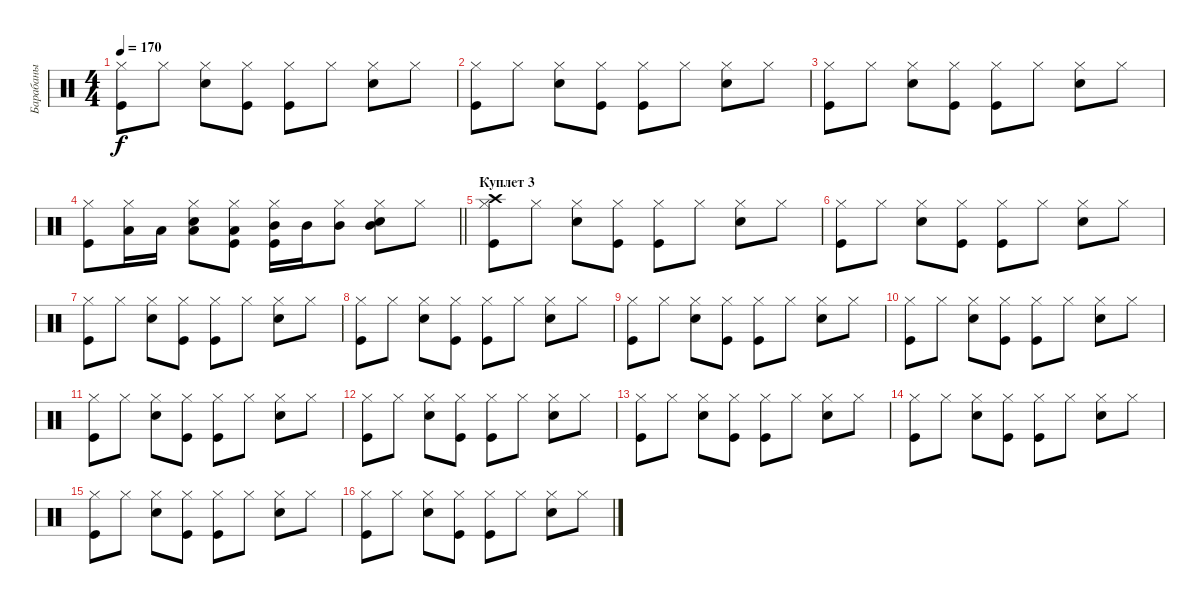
\track ("Барабаны" "Барабаны") {instrument percussion}
\staff {score}
\articulation defaults
\ts (4 4)
\tempo 170
\clef neutral
\ks c
("Kick (hit)" "Hi-Hat (closed)").8{dy f} "Hi-Hat (closed)".8 ("Snare (hit) 2" "Hi-Hat (closed)").8 ("Kick (hit)" "Hi-Hat (closed)").8 ("Kick (hit)" "Hi-Hat (closed)").8 "Hi-Hat (closed)".8 ("Snare (hit) 2" "Hi-Hat (closed)").8 "Hi-Hat (closed)".8 |
("Kick (hit)" "Hi-Hat (closed)").8 "Hi-Hat (closed)".8 ("Snare (hit) 2" "Hi-Hat (closed)").8 ("Kick (hit)" "Hi-Hat (closed)").8 ("Kick (hit)" "Hi-Hat (closed)").8 "Hi-Hat (closed)".8 ("Snare (hit) 2" "Hi-Hat (closed)").8 "Hi-Hat (closed)".8 |
("Kick (hit)" "Hi-Hat (closed)").8 "Hi-Hat (closed)".8 ("Snare (hit) 2" "Hi-Hat (closed)").8 ("Kick (hit)" "Hi-Hat (closed)").8 ("Kick (hit)" "Hi-Hat (closed)").8 "Hi-Hat (closed)".8 ("Snare (hit) 2" "Hi-Hat (closed)").8 "Hi-Hat (closed)".8 |
\barLineRight lightlight
("Kick (hit)" "Hi-Hat (closed)").8 ("Hi-Hat (closed)" "Low Floor Tom (hit)").16 "Low Floor Tom (hit)".16 ("Snare (hit) 2" "Hi-Hat (closed)" "Low Floor Tom (hit)").8 ("Kick (hit)" "Hi-Hat (closed)" "Low Tom (hit)").8 ("Kick (hit)" "Hi-Hat (closed)" "Mid Tom (hit)").16 "Mid Tom (hit)".16 ("Hi-Hat (closed)" "Mid Tom (hit)").8 ("Snare (hit) 2" "Hi-Hat (closed)" "Mid Tom (hit)").8 "Hi-Hat (closed)".8 |
\section ("" "Куплет 3")
("Kick (hit)" "Hi-Hat (closed)" "Crash high (hit)").8 "Hi-Hat (closed)".8 ("Snare (hit) 2" "Hi-Hat (closed)").8 ("Kick (hit)" "Hi-Hat (closed)").8 ("Kick (hit)" "Hi-Hat (closed)").8 "Hi-Hat (closed)".8 ("Snare (hit) 2" "Hi-Hat (closed)").8 "Hi-Hat (closed)".8 |
("Kick (hit)" "Hi-Hat (closed)").8 "Hi-Hat (closed)".8 ("Snare (hit) 2" "Hi-Hat (closed)").8 ("Kick (hit)" "Hi-Hat (closed)").8 ("Kick (hit)" "Hi-Hat (closed)").8 "Hi-Hat (closed)".8 ("Snare (hit) 2" "Hi-Hat (closed)").8 "Hi-Hat (closed)".8 |
("Kick (hit)" "Hi-Hat (closed)").8 "Hi-Hat (closed)".8 ("Snare (hit) 2" "Hi-Hat (closed)").8 ("Kick (hit)" "Hi-Hat (closed)").8 ("Kick (hit)" "Hi-Hat (closed)").8 "Hi-Hat (closed)".8 ("Snare (hit) 2" "Hi-Hat (closed)").8 "Hi-Hat (closed)".8 |
("Kick (hit)" "Hi-Hat (closed)").8 "Hi-Hat (closed)".8 ("Snare (hit) 2" "Hi-Hat (closed)").8 ("Kick (hit)" "Hi-Hat (closed)").8 ("Kick (hit)" "Hi-Hat (closed)").8 "Hi-Hat (closed)".8 ("Snare (hit) 2" "Hi-Hat (closed)").8 "Hi-Hat (closed)".8 |
("Kick (hit)" "Hi-Hat (closed)").8 "Hi-Hat (closed)".8 ("Snare (hit) 2" "Hi-Hat (closed)").8 ("Kick (hit)" "Hi-Hat (closed)").8 ("Kick (hit)" "Hi-Hat (closed)").8 "Hi-Hat (closed)".8 ("Snare (hit) 2" "Hi-Hat (closed)").8 "Hi-Hat (closed)".8 |
("Kick (hit)" "Hi-Hat (closed)").8 "Hi-Hat (closed)".8 ("Snare (hit) 2" "Hi-Hat (closed)").8 ("Kick (hit)" "Hi-Hat (closed)").8 ("Kick (hit)" "Hi-Hat (closed)").8 "Hi-Hat (closed)".8 ("Snare (hit) 2" "Hi-Hat (closed)").8 "Hi-Hat (closed)".8 |
("Kick (hit)" "Hi-Hat (closed)").8 "Hi-Hat (closed)".8 ("Snare (hit) 2" "Hi-Hat (closed)").8 ("Kick (hit)" "Hi-Hat (closed)").8 ("Kick (hit)" "Hi-Hat (closed)").8 "Hi-Hat (closed)".8 ("Snare (hit) 2" "Hi-Hat (closed)").8 "Hi-Hat (closed)".8 |
("Kick (hit)" "Hi-Hat (closed)").8 "Hi-Hat (closed)".8 ("Snare (hit) 2" "Hi-Hat (closed)").8 ("Kick (hit)" "Hi-Hat (closed)").8 ("Kick (hit)" "Hi-Hat (closed)").8 "Hi-Hat (closed)".8 ("Snare (hit) 2" "Hi-Hat (closed)").8 "Hi-Hat (closed)".8 |
("Kick (hit)" "Hi-Hat (closed)").8 "Hi-Hat (closed)".8 ("Snare (hit) 2" "Hi-Hat (closed)").8 ("Kick (hit)" "Hi-Hat (closed)").8 ("Kick (hit)" "Hi-Hat (closed)").8 "Hi-Hat (closed)".8 ("Snare (hit) 2" "Hi-Hat (closed)").8 "Hi-Hat (closed)".8 |
("Kick (hit)" "Hi-Hat (closed)").8 "Hi-Hat (closed)".8 ("Snare (hit) 2" "Hi-Hat (closed)").8 ("Kick (hit)" "Hi-Hat (closed)").8 ("Kick (hit)" "Hi-Hat (closed)").8 "Hi-Hat (closed)".8 ("Snare (hit) 2" "Hi-Hat (closed)").8 "Hi-Hat (closed)".8 |
("Kick (hit)" "Hi-Hat (closed)").8 "Hi-Hat (closed)".8 ("Snare (hit) 2" "Hi-Hat (closed)").8 ("Kick (hit)" "Hi-Hat (closed)").8 ("Kick (hit)" "Hi-Hat (closed)").8 "Hi-Hat (closed)".8 ("Snare (hit) 2" "Hi-Hat (closed)").8 "Hi-Hat (closed)".8 |
("Kick (hit)" "Hi-Hat (closed)").8 "Hi-Hat (closed)".8 ("Snare (hit) 2" "Hi-Hat (closed)").8 ("Kick (hit)" "Hi-Hat (closed)").8 ("Kick (hit)" "Hi-Hat (closed)").8 "Hi-Hat (closed)".8 ("Snare (hit) 2" "Hi-Hat (closed)").8 "Hi-Hat (closed)".8
